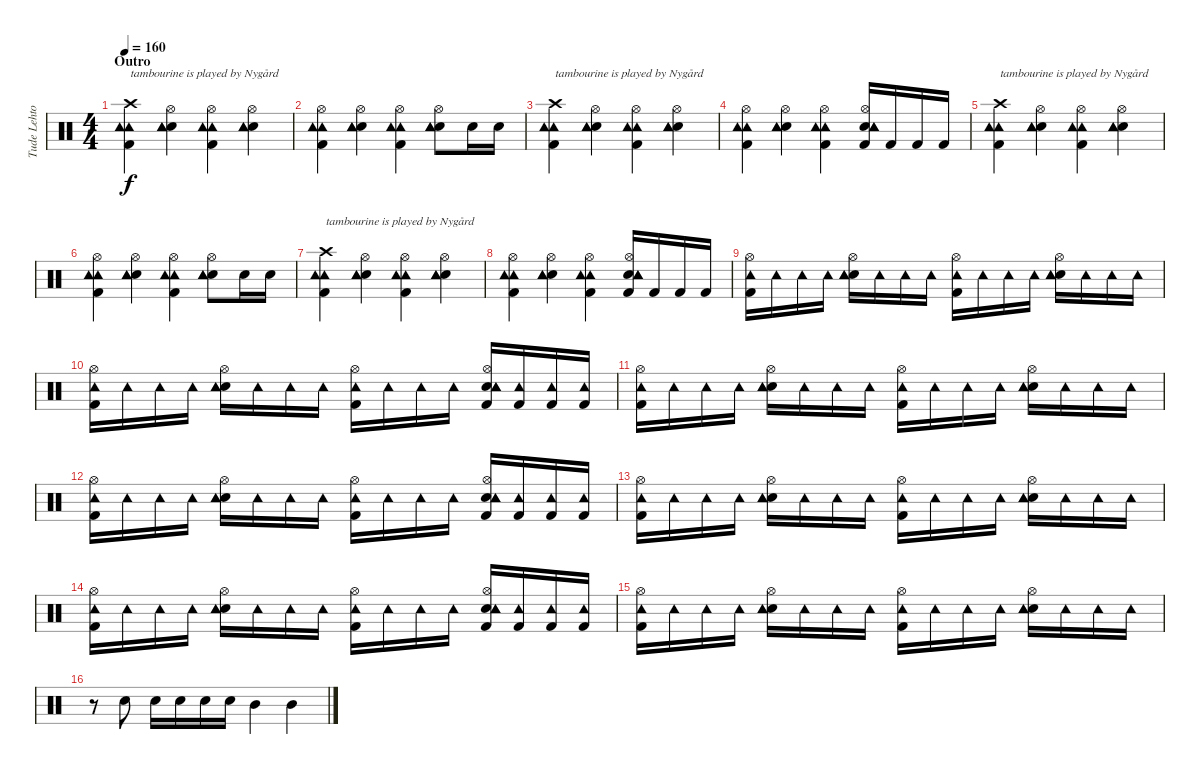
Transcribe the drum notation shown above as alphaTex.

\track ("Tude Lehtonen" "Tude Lehto") {instrument percussion}
\staff {score}
\articulation defaults
\ts (4 4)
\section ("" "Outro")
\tempo 160
\clef neutral
\ks c
("Crash high (hit)" "Tambourine (hit)" "Tambourine (hit)" "Kick (hit) 2").4{txt "tambourine is played by Nygård" dy f} ("Hi-Hat (open)" "Snare (hit) 2" "Tambourine (hit)" "Tambourine (hit)").4 ("Hi-Hat (open)" "Tambourine (hit)" "Tambourine (hit)" "Kick (hit) 2").4 ("Hi-Hat (open)" "Snare (hit) 2" "Tambourine (hit)" "Tambourine (hit)").4 |
("Hi-Hat (open)" "Tambourine (hit)" "Tambourine (hit)" "Kick (hit) 2").4 ("Hi-Hat (open)" "Snare (hit) 2" "Tambourine (hit)" "Tambourine (hit)").4 ("Hi-Hat (open)" "Tambourine (hit)" "Tambourine (hit)" "Kick (hit) 2").4 ("Hi-Hat (open)" "Snare (hit) 2" "Tambourine (hit)" "Tambourine (hit)").8 "Snare (hit) 2".16 "Snare (hit) 2".16 |
("Crash high (hit)" "Tambourine (hit)" "Tambourine (hit)" "Kick (hit) 2").4{txt "tambourine is played by Nygård"} ("Hi-Hat (open)" "Snare (hit) 2" "Tambourine (hit)" "Tambourine (hit)").4 ("Hi-Hat (open)" "Tambourine (hit)" "Tambourine (hit)" "Kick (hit) 2").4 ("Hi-Hat (open)" "Snare (hit) 2" "Tambourine (hit)" "Tambourine (hit)").4 |
("Hi-Hat (open)" "Tambourine (hit)" "Tambourine (hit)" "Kick (hit) 2").4 ("Hi-Hat (open)" "Snare (hit) 2" "Tambourine (hit)" "Tambourine (hit)").4 ("Hi-Hat (open)" "Tambourine (hit)" "Tambourine (hit)" "Kick (hit) 2").4 ("Hi-Hat (open)" "Snare (hit) 2" "Tambourine (hit)" "Tambourine (hit)" "Kick (hit) 2").16 "Kick (hit) 2".16 "Kick (hit) 2".16 "Kick (hit) 2".16 |
("Crash high (hit)" "Tambourine (hit)" "Tambourine (hit)" "Kick (hit) 2").4{txt "tambourine is played by Nygård"} ("Hi-Hat (open)" "Snare (hit) 2" "Tambourine (hit)" "Tambourine (hit)").4 ("Hi-Hat (open)" "Tambourine (hit)" "Tambourine (hit)" "Kick (hit) 2").4 ("Hi-Hat (open)" "Snare (hit) 2" "Tambourine (hit)" "Tambourine (hit)").4 |
("Hi-Hat (open)" "Tambourine (hit)" "Tambourine (hit)" "Kick (hit) 2").4 ("Hi-Hat (open)" "Snare (hit) 2" "Tambourine (hit)" "Tambourine (hit)").4 ("Hi-Hat (open)" "Tambourine (hit)" "Tambourine (hit)" "Kick (hit) 2").4 ("Hi-Hat (open)" "Snare (hit) 2" "Tambourine (hit)" "Tambourine (hit)").8 "Snare (hit) 2".16 "Snare (hit) 2".16 |
("Crash high (hit)" "Tambourine (hit)" "Tambourine (hit)" "Kick (hit) 2").4{txt "tambourine is played by Nygård"} ("Hi-Hat (open)" "Snare (hit) 2" "Tambourine (hit)" "Tambourine (hit)").4 ("Hi-Hat (open)" "Tambourine (hit)" "Tambourine (hit)" "Kick (hit) 2").4 ("Hi-Hat (open)" "Snare (hit) 2" "Tambourine (hit)" "Tambourine (hit)").4 |
("Hi-Hat (open)" "Tambourine (hit)" "Tambourine (hit)" "Kick (hit) 2").4 ("Hi-Hat (open)" "Snare (hit) 2" "Tambourine (hit)" "Tambourine (hit)").4 ("Hi-Hat (open)" "Tambourine (hit)" "Tambourine (hit)" "Kick (hit) 2").4 ("Hi-Hat (open)" "Snare (hit) 2" "Tambourine (hit)" "Tambourine (hit)" "Kick (hit) 2").16 "Kick (hit) 2".16 "Kick (hit) 2".16 "Kick (hit) 2".16 |
("Hi-Hat (open)" "Tambourine (hit)" "Kick (hit) 2").16 "Tambourine (hit)".16 "Tambourine (hit)".16 "Tambourine (hit)".16 ("Hi-Hat (open)" "Snare (hit) 2" "Tambourine (hit)" "Tambourine (hit)").16 "Tambourine (hit)".16 "Tambourine (hit)".16 "Tambourine (hit)".16 ("Hi-Hat (open)" "Tambourine (hit)" "Kick (hit) 2").16 "Tambourine (hit)".16 "Tambourine (hit)".16 "Tambourine (hit)".16 ("Hi-Hat (open)" "Snare (hit) 2" "Tambourine (hit)" "Tambourine (hit)").16 "Tambourine (hit)".16 "Tambourine (hit)".16 "Tambourine (hit)".16 |
("Hi-Hat (open)" "Tambourine (hit)" "Kick (hit) 2").16 "Tambourine (hit)".16 "Tambourine (hit)".16 "Tambourine (hit)".16 ("Hi-Hat (open)" "Snare (hit) 2" "Tambourine (hit)" "Tambourine (hit)").16 "Tambourine (hit)".16 "Tambourine (hit)".16 "Tambourine (hit)".16 ("Hi-Hat (open)" "Tambourine (hit)" "Kick (hit) 2").16 "Tambourine (hit)".16 "Tambourine (hit)".16 "Tambourine (hit)".16 ("Hi-Hat (open)" "Snare (hit) 2" "Tambourine (hit)" "Tambourine (hit)" "Kick (hit) 2").16 ("Tambourine (hit)" "Kick (hit) 2").16 ("Tambourine (hit)" "Kick (hit) 2").16 ("Tambourine (hit)" "Kick (hit) 2").16 |
("Hi-Hat (open)" "Tambourine (hit)" "Kick (hit) 2").16 "Tambourine (hit)".16 "Tambourine (hit)".16 "Tambourine (hit)".16 ("Hi-Hat (open)" "Snare (hit) 2" "Tambourine (hit)" "Tambourine (hit)").16 "Tambourine (hit)".16 "Tambourine (hit)".16 "Tambourine (hit)".16 ("Hi-Hat (open)" "Tambourine (hit)" "Kick (hit) 2").16 "Tambourine (hit)".16 "Tambourine (hit)".16 "Tambourine (hit)".16 ("Hi-Hat (open)" "Snare (hit) 2" "Tambourine (hit)" "Tambourine (hit)").16 "Tambourine (hit)".16 "Tambourine (hit)".16 "Tambourine (hit)".16 |
("Hi-Hat (open)" "Tambourine (hit)" "Kick (hit) 2").16 "Tambourine (hit)".16 "Tambourine (hit)".16 "Tambourine (hit)".16 ("Hi-Hat (open)" "Snare (hit) 2" "Tambourine (hit)" "Tambourine (hit)").16 "Tambourine (hit)".16 "Tambourine (hit)".16 "Tambourine (hit)".16 ("Hi-Hat (open)" "Tambourine (hit)" "Kick (hit) 2").16 "Tambourine (hit)".16 "Tambourine (hit)".16 "Tambourine (hit)".16 ("Hi-Hat (open)" "Snare (hit) 2" "Tambourine (hit)" "Tambourine (hit)" "Kick (hit) 2").16 ("Tambourine (hit)" "Kick (hit) 2").16 ("Tambourine (hit)" "Kick (hit) 2").16 ("Tambourine (hit)" "Kick (hit) 2").16 |
("Hi-Hat (open)" "Tambourine (hit)" "Kick (hit) 2").16 "Tambourine (hit)".16 "Tambourine (hit)".16 "Tambourine (hit)".16 ("Hi-Hat (open)" "Snare (hit) 2" "Tambourine (hit)" "Tambourine (hit)").16 "Tambourine (hit)".16 "Tambourine (hit)".16 "Tambourine (hit)".16 ("Hi-Hat (open)" "Tambourine (hit)" "Kick (hit) 2").16 "Tambourine (hit)".16 "Tambourine (hit)".16 "Tambourine (hit)".16 ("Hi-Hat (open)" "Snare (hit) 2" "Tambourine (hit)" "Tambourine (hit)").16 "Tambourine (hit)".16 "Tambourine (hit)".16 "Tambourine (hit)".16 |
("Hi-Hat (open)" "Tambourine (hit)" "Kick (hit) 2").16 "Tambourine (hit)".16 "Tambourine (hit)".16 "Tambourine (hit)".16 ("Hi-Hat (open)" "Snare (hit) 2" "Tambourine (hit)" "Tambourine (hit)").16 "Tambourine (hit)".16 "Tambourine (hit)".16 "Tambourine (hit)".16 ("Hi-Hat (open)" "Tambourine (hit)" "Kick (hit) 2").16 "Tambourine (hit)".16 "Tambourine (hit)".16 "Tambourine (hit)".16 ("Hi-Hat (open)" "Snare (hit) 2" "Tambourine (hit)" "Tambourine (hit)" "Kick (hit) 2").16 ("Tambourine (hit)" "Kick (hit) 2").16 ("Tambourine (hit)" "Kick (hit) 2").16 ("Tambourine (hit)" "Kick (hit) 2").16 |
("Hi-Hat (open)" "Tambourine (hit)" "Kick (hit) 2").16 "Tambourine (hit)".16 "Tambourine (hit)".16 "Tambourine (hit)".16 ("Hi-Hat (open)" "Snare (hit) 2" "Tambourine (hit)" "Tambourine (hit)").16 "Tambourine (hit)".16 "Tambourine (hit)".16 "Tambourine (hit)".16 ("Hi-Hat (open)" "Tambourine (hit)" "Kick (hit) 2").16 "Tambourine (hit)".16 "Tambourine (hit)".16 "Tambourine (hit)".16 ("Hi-Hat (open)" "Snare (hit) 2" "Tambourine (hit)" "Tambourine (hit)").16 "Tambourine (hit)".16 "Tambourine (hit)".16 "Tambourine (hit)".16 |
r.8 "Snare (hit) 2".8 "Snare (hit) 2".16 "Snare (hit) 2".16 "Snare (hit) 2".16 "Snare (hit) 2".16 "Mid Tom (hit)".4 "Mid Tom (hit)".4
